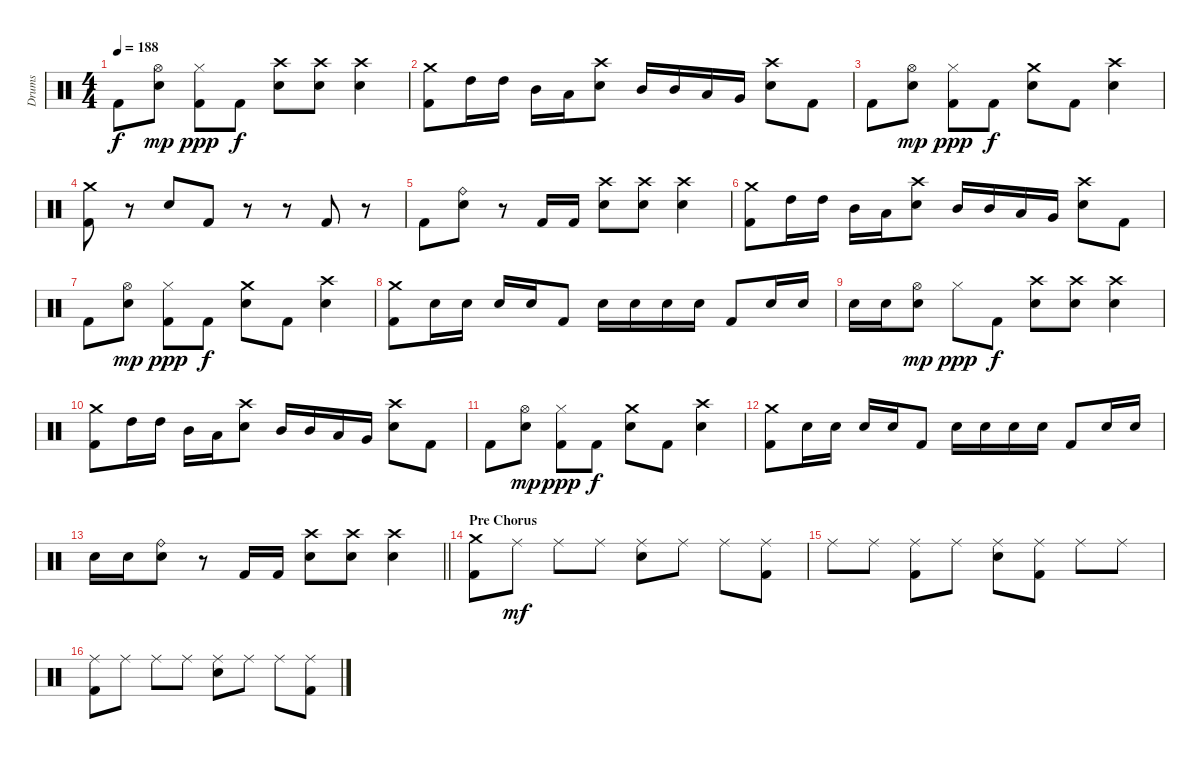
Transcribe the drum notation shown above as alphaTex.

\track ("Drums" "Drums") {instrument percussion}
\staff {score}
\articulation defaults
\ts (4 4)
\tempo 188
\clef neutral
\ks c "Kick (hit) 2".8{dy f}
("Hi-Hat (open)" "Snare (hit) 2").8{dy mp} ("Hi-Hat (closed)" "Kick (hit) 2").8{dy ppp} "Kick (hit) 2".8{dy f} ("Crash high (hit)" "Snare (hit) 2").8 ("Crash high (hit)" "Snare (hit) 2").8 ("Crash high (hit)" "Snare (hit) 2").4 |
("Crash medium (hit)" "Kick (hit) 2").8 "High Tom (hit)".16 "High Tom (hit)".16 "Mid Tom (hit)".16 "Low Tom (hit)".16 ("Crash high (hit)" "Snare (hit) 2").8 "Mid Tom (hit)".16 "Mid Tom (hit)".16 "Low Tom (hit)".16 "Very Low Tom (hit)".16 ("Crash high (hit)" "Snare (hit) 2").8 "Kick (hit) 2".8 |
"Kick (hit) 2".8 ("Hi-Hat (open)" "Snare (hit) 2").8{dy mp} ("Hi-Hat (closed)" "Kick (hit) 2").8{dy ppp} "Kick (hit) 2".8{dy f} ("Crash medium (hit)" "Snare (hit) 2").8 "Kick (hit) 2".8 ("Crash high (hit)" "Snare (hit) 2").4 |
("Crash medium (hit)" "Kick (hit) 2").8 r.8 "Snare (hit) 2".8 "Kick (hit) 2".8 r.8 r.8 "Kick (hit) 2".8 r.8 |
"Kick (hit) 2".8 ("Ride (bell)" "Snare (hit) 2").8 r.8 "Kick (hit) 2".16 "Kick (hit) 2".16 ("Crash high (hit)" "Snare (hit) 2").8 ("Crash high (hit)" "Snare (hit) 2").8 ("Crash high (hit)" "Snare (hit) 2").4 |
("Crash medium (hit)" "Kick (hit) 2").8 "High Tom (hit)".16 "High Tom (hit)".16 "Mid Tom (hit)".16 "Low Tom (hit)".16 ("Crash high (hit)" "Snare (hit) 2").8 "Mid Tom (hit)".16 "Mid Tom (hit)".16 "Low Tom (hit)".16 "Very Low Tom (hit)".16 ("Crash high (hit)" "Snare (hit) 2").8 "Kick (hit) 2".8 |
"Kick (hit) 2".8 ("Hi-Hat (open)" "Snare (hit) 2").8{dy mp} ("Hi-Hat (closed)" "Kick (hit) 2").8{dy ppp} "Kick (hit) 2".8{dy f} ("Crash medium (hit)" "Snare (hit) 2").8 "Kick (hit) 2".8 ("Crash high (hit)" "Snare (hit) 2").4 |
("Crash medium (hit)" "Kick (hit) 2").8 "Snare (hit) 2".16 "Snare (hit) 2".16 "Snare (hit) 2".16 "Snare (hit) 2".16 "Kick (hit) 2".8 "Snare (hit) 2".16 "Snare (hit) 2".16 "Snare (hit) 2".16 "Snare (hit) 2".16 "Kick (hit) 2".8 "Snare (hit) 2".16 "Snare (hit) 2".16 |
"Snare (hit) 2".16 "Snare (hit) 2".16 ("Hi-Hat (open)" "Snare (hit) 2").8{dy mp} "Hi-Hat (closed)".8{dy ppp} "Kick (hit) 2".8{dy f} ("Crash high (hit)" "Snare (hit) 2").8 ("Crash high (hit)" "Snare (hit) 2").8 ("Crash high (hit)" "Snare (hit) 2").4 |
("Crash medium (hit)" "Kick (hit) 2").8 "High Tom (hit)".16 "High Tom (hit)".16 "Mid Tom (hit)".16 "Low Tom (hit)".16 ("Crash high (hit)" "Snare (hit) 2").8 "Mid Tom (hit)".16 "Mid Tom (hit)".16 "Low Tom (hit)".16 "Very Low Tom (hit)".16 ("Crash high (hit)" "Snare (hit) 2").8 "Kick (hit) 2".8 |
"Kick (hit) 2".8 ("Hi-Hat (open)" "Snare (hit) 2").8{dy mp} ("Hi-Hat (closed)" "Kick (hit) 2").8{dy ppp} "Kick (hit) 2".8{dy f} ("Crash medium (hit)" "Snare (hit) 2").8 "Kick (hit) 2".8 ("Crash high (hit)" "Snare (hit) 2").4 |
("Crash medium (hit)" "Kick (hit) 2").8 "Snare (hit) 2".16 "Snare (hit) 2".16 "Snare (hit) 2".16 "Snare (hit) 2".16 "Kick (hit) 2".8 "Snare (hit) 2".16 "Snare (hit) 2".16 "Snare (hit) 2".16 "Snare (hit) 2".16 "Kick (hit) 2".8 "Snare (hit) 2".16 "Snare (hit) 2".16 |
\barLineRight lightlight "Snare (hit) 2".16 "Snare (hit) 2".16
("Ride (bell)" "Snare (hit) 2").8 r.8 "Kick (hit) 2".16 "Kick (hit) 2".16 ("Crash high (hit)" "Snare (hit) 2").8 ("Crash high (hit)" "Snare (hit) 2").8 ("Crash high (hit)" "Snare (hit) 2").4 |
\section ("" "Pre Chorus")
("Crash medium (hit)" "Kick (hit) 2").8 "Ride (middle)".8{dy mf} "Ride (middle)".8 "Ride (middle)".8 ("Ride (middle)" "Snare (hit) 2").8 "Ride (middle)".8 "Ride (middle)".8 ("Ride (middle)" "Kick (hit) 2").8 |
"Ride (middle)".8 "Ride (middle)".8 ("Ride (middle)" "Kick (hit) 2").8 "Ride (middle)".8 ("Ride (middle)" "Snare (hit) 2").8 ("Ride (middle)" "Kick (hit) 2").8 "Ride (middle)".8 "Ride (middle)".8 |
("Ride (middle)" "Kick (hit) 2").8 "Ride (middle)".8 "Ride (middle)".8 "Ride (middle)".8 ("Ride (middle)" "Snare (hit) 2").8 "Ride (middle)".8 "Ride (middle)".8 ("Ride (middle)" "Kick (hit) 2").8
